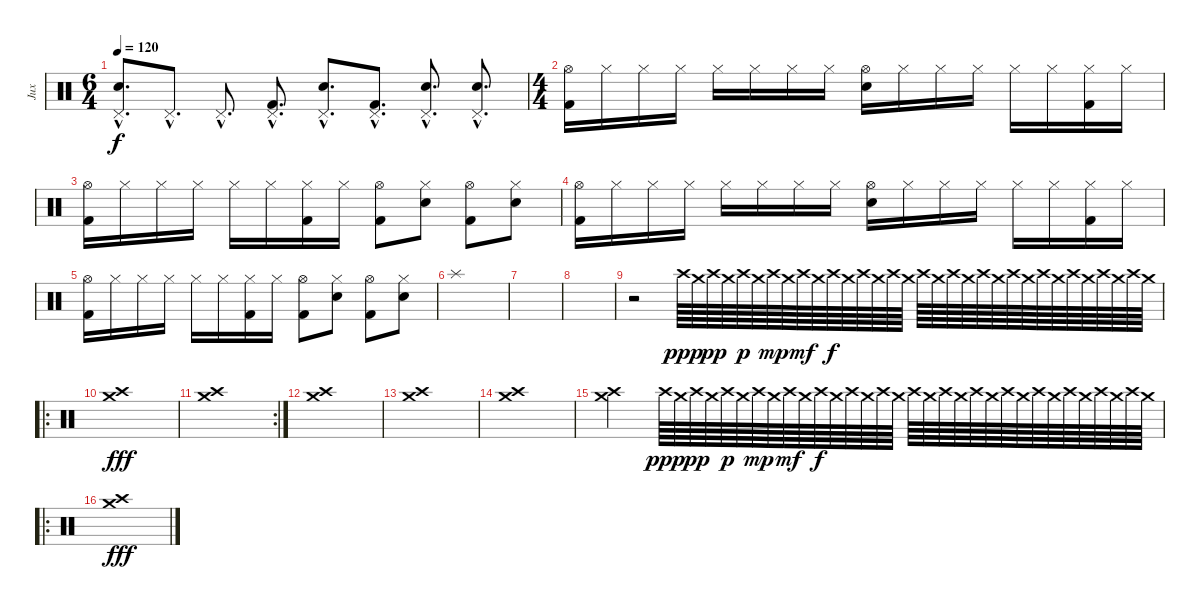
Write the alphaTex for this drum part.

\track ("Jux" "Jux") {instrument percussion}
\staff {score}
\articulation defaults
\ts (6 4)
\tempo 120
\clef neutral
\ks c
("Pedal Hi-Hat (hit)"{hac} "Electric Snare (hit)"{hac}).8{d dy f} "Pedal Hi-Hat (hit)"{hac}.8{d} "Pedal Hi-Hat (hit)"{hac}.8{d} ("Pedal Hi-Hat (hit)"{hac} "Kick (hit) 2"{hac}).8{d} ("Pedal Hi-Hat (hit)"{hac} "Electric Snare (hit)"{hac}).8{d} ("Pedal Hi-Hat (hit)"{hac} "Kick (hit) 2"{hac}).8{d} ("Pedal Hi-Hat (hit)"{hac} "Electric Snare (hit)"{hac}).8{d} ("Pedal Hi-Hat (hit)"{hac} "Electric Snare (hit)"{hac}).8{d} |
\ts (4 4)
("Hi-Hat (open)" "Kick (hit) 2").16 "Hi-Hat (closed)".16 "Hi-Hat (closed)".16 "Hi-Hat (closed)".16 "Hi-Hat (closed)".16 "Hi-Hat (closed)".16 "Hi-Hat (closed)".16 "Hi-Hat (closed)".16 ("Hi-Hat (open)" "Electric Snare (hit)").16 "Hi-Hat (closed)".16 "Hi-Hat (closed)".16 "Hi-Hat (closed)".16 "Hi-Hat (closed)".16 "Hi-Hat (closed)".16 ("Hi-Hat (closed)" "Kick (hit) 2").16 "Hi-Hat (closed)".16 |
("Hi-Hat (open)" "Kick (hit) 2").16 "Hi-Hat (closed)".16 "Hi-Hat (closed)".16 "Hi-Hat (closed)".16 "Hi-Hat (closed)".16 "Hi-Hat (closed)".16 ("Hi-Hat (closed)" "Kick (hit) 2").16 "Hi-Hat (closed)".16 ("Hi-Hat (open)" "Kick (hit) 2").8 ("Hi-Hat (closed)" "Electric Snare (hit)").8 ("Hi-Hat (open)" "Kick (hit) 2").8 ("Hi-Hat (closed)" "Electric Snare (hit)").8 |
("Hi-Hat (open)" "Kick (hit) 2").16 "Hi-Hat (closed)".16 "Hi-Hat (closed)".16 "Hi-Hat (closed)".16 "Hi-Hat (closed)".16 "Hi-Hat (closed)".16 "Hi-Hat (closed)".16 "Hi-Hat (closed)".16 ("Hi-Hat (open)" "Electric Snare (hit)").16 "Hi-Hat (closed)".16 "Hi-Hat (closed)".16 "Hi-Hat (closed)".16 "Hi-Hat (closed)".16 "Hi-Hat (closed)".16 ("Hi-Hat (closed)" "Kick (hit) 2").16 "Hi-Hat (closed)".16 |
("Hi-Hat (open)" "Kick (hit) 2").16 "Hi-Hat (closed)".16 "Hi-Hat (closed)".16 "Hi-Hat (closed)".16 "Hi-Hat (closed)".16 "Hi-Hat (closed)".16 ("Hi-Hat (closed)" "Kick (hit) 2").16 "Hi-Hat (closed)".16 ("Hi-Hat (open)" "Kick (hit) 2").8 ("Hi-Hat (closed)" "Electric Snare (hit)").8 ("Hi-Hat (open)" "Kick (hit) 2").8 ("Hi-Hat (closed)" "Electric Snare (hit)").8 |
"Splash (hit)".1 |
|
|
r.2 "Crash high (hit)".64{dy ppp} "Crash medium (hit)".64 "Crash high (hit)".64{dy pp} "Crash medium (hit)".64 "Crash high (hit)".64{dy p} "Crash medium (hit)".64 "Crash high (hit)".64{dy mp} "Crash medium (hit)".64 "Crash high (hit)".64{dy mf} "Crash medium (hit)".64 "Crash high (hit)".64{dy f} "Crash medium (hit)".64 "Crash high (hit)".64 "Crash medium (hit)".64 "Crash high (hit)".64 "Crash medium (hit)".64 "Crash high (hit)".64 "Crash medium (hit)".64 "Crash high (hit)".64 "Crash medium (hit)".64 "Crash high (hit)".64 "Crash medium (hit)".64 "Crash high (hit)".64 "Crash medium (hit)".64 "Crash high (hit)".64 "Crash medium (hit)".64 "Crash high (hit)".64 "Crash medium (hit)".64 "Crash high (hit)".64 "Crash medium (hit)".64 "Crash high (hit)".64 "Crash medium (hit)".64 |
\ro
("Crash high (hit)" "Crash medium (hit)").1{dy fff} |
\rc 2
("Crash high (hit)" "Crash medium (hit)").1 |
("Crash high (hit)" "Crash medium (hit)").1 |
("Crash high (hit)" "Crash medium (hit)").1 |
("Crash high (hit)" "Crash medium (hit)").1 |
("Crash medium (hit)" "Crash high (hit)").2 "Crash high (hit)".64{dy ppp} "Crash medium (hit)".64 "Crash high (hit)".64{dy pp} "Crash medium (hit)".64 "Crash high (hit)".64{dy p} "Crash medium (hit)".64 "Crash high (hit)".64{dy mp} "Crash medium (hit)".64 "Crash high (hit)".64{dy mf} "Crash medium (hit)".64 "Crash high (hit)".64{dy f} "Crash medium (hit)".64 "Crash high (hit)".64 "Crash medium (hit)".64 "Crash high (hit)".64 "Crash medium (hit)".64 "Crash high (hit)".64 "Crash medium (hit)".64 "Crash high (hit)".64 "Crash medium (hit)".64 "Crash high (hit)".64 "Crash medium (hit)".64 "Crash high (hit)".64 "Crash medium (hit)".64 "Crash high (hit)".64 "Crash medium (hit)".64 "Crash high (hit)".64 "Crash medium (hit)".64 "Crash high (hit)".64 "Crash medium (hit)".64 "Crash high (hit)".64 "Crash medium (hit)".64 |
\ro
("Crash high (hit)" "Crash medium (hit)").1{dy fff}
